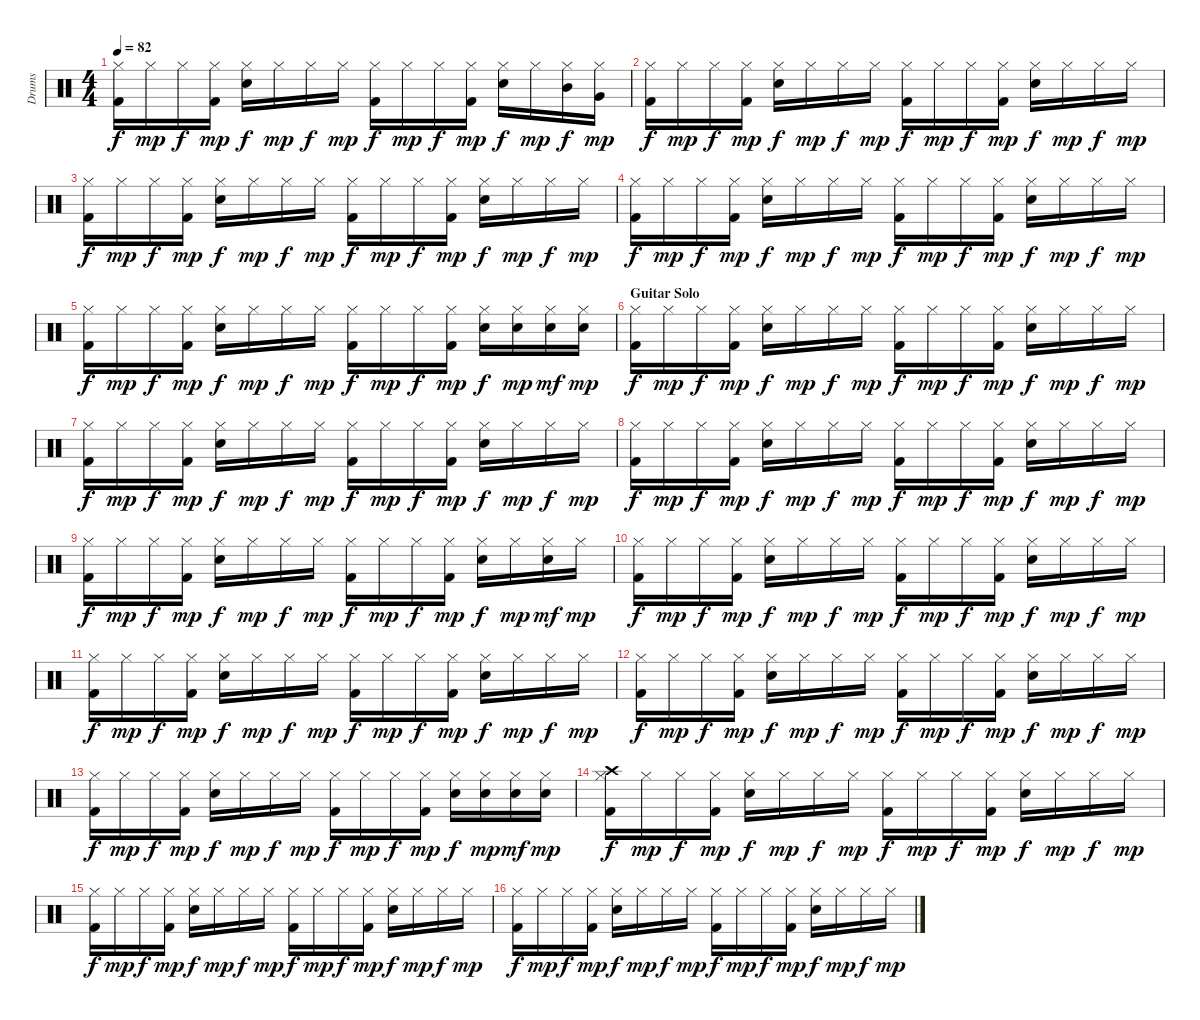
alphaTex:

\track ("Drums" "Drums") {instrument percussion}
\staff {score}
\articulation defaults
\ts (4 4)
\tempo 82
\clef neutral
\ks c
("Hi-Hat (closed)" "Kick (hit) 2").16{dy f} "Hi-Hat (closed)".16{dy mp} "Hi-Hat (closed)".16{dy f} ("Hi-Hat (closed)" "Kick (hit) 2").16{dy mp} ("Hi-Hat (closed)" "Snare (hit) 2").16{dy f} "Hi-Hat (closed)".16{dy mp} "Hi-Hat (closed)".16{dy f} "Hi-Hat (closed)".16{dy mp} ("Hi-Hat (closed)" "Kick (hit) 2").16{dy f} "Hi-Hat (closed)".16{dy mp} "Hi-Hat (closed)".16{dy f} ("Hi-Hat (closed)" "Kick (hit) 2").16{dy mp} ("Hi-Hat (closed)" "Snare (hit) 2").16{dy f} "Hi-Hat (closed)".16{dy mp} ("Hi-Hat (closed)" "Mid Tom (hit)").16{dy f} ("Hi-Hat (closed)" "Very Low Tom (hit)").16{dy mp} |
("Hi-Hat (closed)" "Kick (hit) 2").16{dy f} "Hi-Hat (closed)".16{dy mp} "Hi-Hat (closed)".16{dy f} ("Hi-Hat (closed)" "Kick (hit) 2").16{dy mp} ("Hi-Hat (closed)" "Snare (hit) 2").16{dy f} "Hi-Hat (closed)".16{dy mp} "Hi-Hat (closed)".16{dy f} "Hi-Hat (closed)".16{dy mp} ("Hi-Hat (closed)" "Kick (hit) 2").16{dy f} "Hi-Hat (closed)".16{dy mp} "Hi-Hat (closed)".16{dy f} ("Hi-Hat (closed)" "Kick (hit) 2").16{dy mp} ("Hi-Hat (closed)" "Snare (hit) 2").16{dy f} "Hi-Hat (closed)".16{dy mp} "Hi-Hat (closed)".16{dy f} "Hi-Hat (closed)".16{dy mp} |
("Hi-Hat (closed)" "Kick (hit) 2").16{dy f} "Hi-Hat (closed)".16{dy mp} "Hi-Hat (closed)".16{dy f} ("Hi-Hat (closed)" "Kick (hit) 2").16{dy mp} ("Hi-Hat (closed)" "Snare (hit) 2").16{dy f} "Hi-Hat (closed)".16{dy mp} "Hi-Hat (closed)".16{dy f} "Hi-Hat (closed)".16{dy mp} ("Hi-Hat (closed)" "Kick (hit) 2").16{dy f} "Hi-Hat (closed)".16{dy mp} "Hi-Hat (closed)".16{dy f} ("Hi-Hat (closed)" "Kick (hit) 2").16{dy mp} ("Hi-Hat (closed)" "Snare (hit) 2").16{dy f} "Hi-Hat (closed)".16{dy mp} "Hi-Hat (closed)".16{dy f} "Hi-Hat (closed)".16{dy mp} |
("Hi-Hat (closed)" "Kick (hit) 2").16{dy f} "Hi-Hat (closed)".16{dy mp} "Hi-Hat (closed)".16{dy f} ("Hi-Hat (closed)" "Kick (hit) 2").16{dy mp} ("Hi-Hat (closed)" "Snare (hit) 2").16{dy f} "Hi-Hat (closed)".16{dy mp} "Hi-Hat (closed)".16{dy f} "Hi-Hat (closed)".16{dy mp} ("Hi-Hat (closed)" "Kick (hit) 2").16{dy f} "Hi-Hat (closed)".16{dy mp} "Hi-Hat (closed)".16{dy f} ("Hi-Hat (closed)" "Kick (hit) 2").16{dy mp} ("Hi-Hat (closed)" "Snare (hit) 2").16{dy f} "Hi-Hat (closed)".16{dy mp} "Hi-Hat (closed)".16{dy f} "Hi-Hat (closed)".16{dy mp} |
("Hi-Hat (closed)" "Kick (hit) 2").16{dy f} "Hi-Hat (closed)".16{dy mp} "Hi-Hat (closed)".16{dy f} ("Hi-Hat (closed)" "Kick (hit) 2").16{dy mp} ("Hi-Hat (closed)" "Snare (hit) 2").16{dy f} "Hi-Hat (closed)".16{dy mp} "Hi-Hat (closed)".16{dy f} "Hi-Hat (closed)".16{dy mp} ("Hi-Hat (closed)" "Kick (hit) 2").16{dy f} "Hi-Hat (closed)".16{dy mp} "Hi-Hat (closed)".16{dy f} ("Hi-Hat (closed)" "Kick (hit) 2").16{dy mp} ("Hi-Hat (closed)" "Snare (hit) 2").16{dy f} ("Hi-Hat (closed)" "Snare (hit) 2").16{dy mp} ("Hi-Hat (closed)" "Snare (hit) 2").16{dy mf} ("Hi-Hat (closed)" "Snare (hit) 2").16{dy mp} |
\section ("" "Guitar Solo")
("Hi-Hat (closed)" "Kick (hit) 2").16{dy f} "Hi-Hat (closed)".16{dy mp} "Hi-Hat (closed)".16{dy f} ("Hi-Hat (closed)" "Kick (hit) 2").16{dy mp} ("Hi-Hat (closed)" "Snare (hit) 2").16{dy f} "Hi-Hat (closed)".16{dy mp} "Hi-Hat (closed)".16{dy f} "Hi-Hat (closed)".16{dy mp} ("Hi-Hat (closed)" "Kick (hit) 2").16{dy f} "Hi-Hat (closed)".16{dy mp} "Hi-Hat (closed)".16{dy f} ("Hi-Hat (closed)" "Kick (hit) 2").16{dy mp} ("Hi-Hat (closed)" "Snare (hit) 2").16{dy f} "Hi-Hat (closed)".16{dy mp} "Hi-Hat (closed)".16{dy f} "Hi-Hat (closed)".16{dy mp} |
("Hi-Hat (closed)" "Kick (hit) 2").16{dy f} "Hi-Hat (closed)".16{dy mp} "Hi-Hat (closed)".16{dy f} ("Hi-Hat (closed)" "Kick (hit) 2").16{dy mp} ("Hi-Hat (closed)" "Snare (hit) 2").16{dy f} "Hi-Hat (closed)".16{dy mp} "Hi-Hat (closed)".16{dy f} "Hi-Hat (closed)".16{dy mp} ("Hi-Hat (closed)" "Kick (hit) 2").16{dy f} "Hi-Hat (closed)".16{dy mp} "Hi-Hat (closed)".16{dy f} ("Hi-Hat (closed)" "Kick (hit) 2").16{dy mp} ("Hi-Hat (closed)" "Snare (hit) 2").16{dy f} "Hi-Hat (closed)".16{dy mp} "Hi-Hat (closed)".16{dy f} "Hi-Hat (closed)".16{dy mp} |
("Hi-Hat (closed)" "Kick (hit) 2").16{dy f} "Hi-Hat (closed)".16{dy mp} "Hi-Hat (closed)".16{dy f} ("Hi-Hat (closed)" "Kick (hit) 2").16{dy mp} ("Hi-Hat (closed)" "Snare (hit) 2").16{dy f} "Hi-Hat (closed)".16{dy mp} "Hi-Hat (closed)".16{dy f} "Hi-Hat (closed)".16{dy mp} ("Hi-Hat (closed)" "Kick (hit) 2").16{dy f} "Hi-Hat (closed)".16{dy mp} "Hi-Hat (closed)".16{dy f} ("Hi-Hat (closed)" "Kick (hit) 2").16{dy mp} ("Hi-Hat (closed)" "Snare (hit) 2").16{dy f} "Hi-Hat (closed)".16{dy mp} "Hi-Hat (closed)".16{dy f} "Hi-Hat (closed)".16{dy mp} |
("Hi-Hat (closed)" "Kick (hit) 2").16{dy f} "Hi-Hat (closed)".16{dy mp} "Hi-Hat (closed)".16{dy f} ("Hi-Hat (closed)" "Kick (hit) 2").16{dy mp} ("Hi-Hat (closed)" "Snare (hit) 2").16{dy f} "Hi-Hat (closed)".16{dy mp} "Hi-Hat (closed)".16{dy f} "Hi-Hat (closed)".16{dy mp} ("Hi-Hat (closed)" "Kick (hit) 2").16{dy f} "Hi-Hat (closed)".16{dy mp} "Hi-Hat (closed)".16{dy f} ("Hi-Hat (closed)" "Kick (hit) 2").16{dy mp} ("Hi-Hat (closed)" "Snare (hit) 2").16{dy f} "Hi-Hat (closed)".16{dy mp} ("Hi-Hat (closed)" "Snare (hit) 2").16{dy mf} "Hi-Hat (closed)".16{dy mp} |
("Hi-Hat (closed)" "Kick (hit) 2").16{dy f} "Hi-Hat (closed)".16{dy mp} "Hi-Hat (closed)".16{dy f} ("Hi-Hat (closed)" "Kick (hit) 2").16{dy mp} ("Hi-Hat (closed)" "Snare (hit) 2").16{dy f} "Hi-Hat (closed)".16{dy mp} "Hi-Hat (closed)".16{dy f} "Hi-Hat (closed)".16{dy mp} ("Hi-Hat (closed)" "Kick (hit) 2").16{dy f} "Hi-Hat (closed)".16{dy mp} "Hi-Hat (closed)".16{dy f} ("Hi-Hat (closed)" "Kick (hit) 2").16{dy mp} ("Hi-Hat (closed)" "Snare (hit) 2").16{dy f} "Hi-Hat (closed)".16{dy mp} "Hi-Hat (closed)".16{dy f} "Hi-Hat (closed)".16{dy mp} |
("Hi-Hat (closed)" "Kick (hit) 2").16{dy f} "Hi-Hat (closed)".16{dy mp} "Hi-Hat (closed)".16{dy f} ("Hi-Hat (closed)" "Kick (hit) 2").16{dy mp} ("Hi-Hat (closed)" "Snare (hit) 2").16{dy f} "Hi-Hat (closed)".16{dy mp} "Hi-Hat (closed)".16{dy f} "Hi-Hat (closed)".16{dy mp} ("Hi-Hat (closed)" "Kick (hit) 2").16{dy f} "Hi-Hat (closed)".16{dy mp} "Hi-Hat (closed)".16{dy f} ("Hi-Hat (closed)" "Kick (hit) 2").16{dy mp} ("Hi-Hat (closed)" "Snare (hit) 2").16{dy f} "Hi-Hat (closed)".16{dy mp} "Hi-Hat (closed)".16{dy f} "Hi-Hat (closed)".16{dy mp} |
("Hi-Hat (closed)" "Kick (hit) 2").16{dy f} "Hi-Hat (closed)".16{dy mp} "Hi-Hat (closed)".16{dy f} ("Hi-Hat (closed)" "Kick (hit) 2").16{dy mp} ("Hi-Hat (closed)" "Snare (hit) 2").16{dy f} "Hi-Hat (closed)".16{dy mp} "Hi-Hat (closed)".16{dy f} "Hi-Hat (closed)".16{dy mp} ("Hi-Hat (closed)" "Kick (hit) 2").16{dy f} "Hi-Hat (closed)".16{dy mp} "Hi-Hat (closed)".16{dy f} ("Hi-Hat (closed)" "Kick (hit) 2").16{dy mp} ("Hi-Hat (closed)" "Snare (hit) 2").16{dy f} "Hi-Hat (closed)".16{dy mp} "Hi-Hat (closed)".16{dy f} "Hi-Hat (closed)".16{dy mp} |
("Hi-Hat (closed)" "Kick (hit) 2").16{dy f} "Hi-Hat (closed)".16{dy mp} "Hi-Hat (closed)".16{dy f} ("Hi-Hat (closed)" "Kick (hit) 2").16{dy mp} ("Hi-Hat (closed)" "Snare (hit) 2").16{dy f} "Hi-Hat (closed)".16{dy mp} "Hi-Hat (closed)".16{dy f} "Hi-Hat (closed)".16{dy mp} ("Hi-Hat (closed)" "Kick (hit) 2").16{dy f} "Hi-Hat (closed)".16{dy mp} "Hi-Hat (closed)".16{dy f} ("Hi-Hat (closed)" "Kick (hit) 2").16{dy mp} ("Hi-Hat (closed)" "Snare (hit) 2").16{dy f} ("Hi-Hat (closed)" "Snare (hit) 2").16{dy mp} ("Hi-Hat (closed)" "Snare (hit) 2").16{dy mf} ("Hi-Hat (closed)" "Snare (hit) 2").16{dy mp} |
("Hi-Hat (closed)" "Crash high (hit)" "Kick (hit) 2").16{dy f} "Hi-Hat (closed)".16{dy mp} "Hi-Hat (closed)".16{dy f} ("Hi-Hat (closed)" "Kick (hit) 2").16{dy mp} ("Hi-Hat (closed)" "Snare (hit) 2").16{dy f} "Hi-Hat (closed)".16{dy mp} "Hi-Hat (closed)".16{dy f} "Hi-Hat (closed)".16{dy mp} ("Hi-Hat (closed)" "Kick (hit) 2").16{dy f} "Hi-Hat (closed)".16{dy mp} "Hi-Hat (closed)".16{dy f} ("Hi-Hat (closed)" "Kick (hit) 2").16{dy mp} ("Hi-Hat (closed)" "Snare (hit) 2").16{dy f} "Hi-Hat (closed)".16{dy mp} "Hi-Hat (closed)".16{dy f} "Hi-Hat (closed)".16{dy mp} |
("Hi-Hat (closed)" "Kick (hit) 2").16{dy f} "Hi-Hat (closed)".16{dy mp} "Hi-Hat (closed)".16{dy f} ("Hi-Hat (closed)" "Kick (hit) 2").16{dy mp} ("Hi-Hat (closed)" "Snare (hit) 2").16{dy f} "Hi-Hat (closed)".16{dy mp} "Hi-Hat (closed)".16{dy f} "Hi-Hat (closed)".16{dy mp} ("Hi-Hat (closed)" "Kick (hit) 2").16{dy f} "Hi-Hat (closed)".16{dy mp} "Hi-Hat (closed)".16{dy f} ("Hi-Hat (closed)" "Kick (hit) 2").16{dy mp} ("Hi-Hat (closed)" "Snare (hit) 2").16{dy f} "Hi-Hat (closed)".16{dy mp} "Hi-Hat (closed)".16{dy f} "Hi-Hat (closed)".16{dy mp} |
("Hi-Hat (closed)" "Kick (hit) 2").16{dy f} "Hi-Hat (closed)".16{dy mp} "Hi-Hat (closed)".16{dy f} ("Hi-Hat (closed)" "Kick (hit) 2").16{dy mp} ("Hi-Hat (closed)" "Snare (hit) 2").16{dy f} "Hi-Hat (closed)".16{dy mp} "Hi-Hat (closed)".16{dy f} "Hi-Hat (closed)".16{dy mp} ("Hi-Hat (closed)" "Kick (hit) 2").16{dy f} "Hi-Hat (closed)".16{dy mp} "Hi-Hat (closed)".16{dy f} ("Hi-Hat (closed)" "Kick (hit) 2").16{dy mp} ("Hi-Hat (closed)" "Snare (hit) 2").16{dy f} "Hi-Hat (closed)".16{dy mp} "Hi-Hat (closed)".16{dy f} "Hi-Hat (closed)".16{dy mp}
